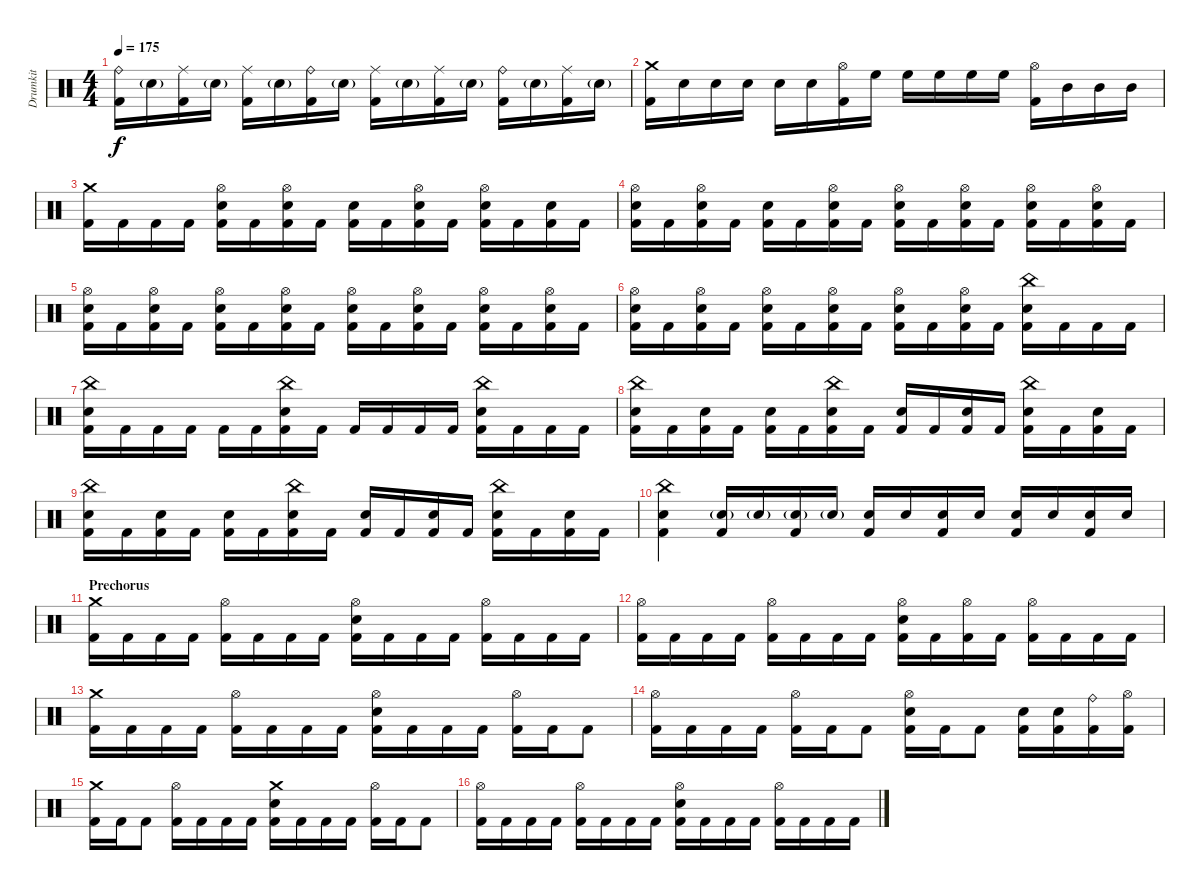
\track ("Drumkit" "Drumkit") {instrument percussion}
\staff {score}
\articulation defaults
\ts (4 4)
\tempo 175
\clef neutral
\ks c
("Ride (bell)" "Kick (hit) 2").16{dy f} "Snare (hit) 2"{g}.16 ("Ride (middle)" "Kick (hit) 2").16 "Snare (hit) 2"{g}.16 ("Ride (middle)" "Kick (hit) 2").16 "Snare (hit) 2"{g}.16 ("Ride (bell)" "Kick (hit) 2").16 "Snare (hit) 2"{g}.16 ("Ride (middle)" "Kick (hit) 2").16 "Snare (hit) 2"{g}.16 ("Ride (middle)" "Kick (hit) 2").16 "Snare (hit) 2"{g}.16 ("Ride (bell)" "Kick (hit) 2").16 "Snare (hit) 2"{g}.16 ("Ride (middle)" "Kick (hit) 2").16 "Snare (hit) 2"{g}.16 |
("Crash medium (hit)" "Kick (hit) 2").16 "Snare (hit) 2".16 "Snare (hit) 2".16 "Snare (hit) 2".16 "Snare (hit) 2".16 "Snare (hit) 2".16 ("Hi-Hat (open)" "Kick (hit) 2").16 "High Floor Tom (hit)".16 "High Floor Tom (hit)".16 "High Floor Tom (hit)".16 "High Floor Tom (hit)".16 "High Floor Tom (hit)".16 ("Hi-Hat (open)" "Kick (hit) 2").16 "Mid Tom (hit)".16 "Mid Tom (hit)".16 "Mid Tom (hit)".16 |
("Crash medium (hit)" "Kick (hit) 2").16 "Kick (hit) 2".16 "Kick (hit) 2".16 "Kick (hit) 2".16 ("Hi-Hat (open)" "Snare (hit) 2" "Kick (hit) 2").16 "Kick (hit) 2".16 ("Hi-Hat (open)" "Snare (hit) 2" "Kick (hit) 2").16 "Kick (hit) 2".16 ("Snare (hit) 2" "Kick (hit) 2").16 "Kick (hit) 2".16 ("Hi-Hat (open)" "Snare (hit) 2" "Kick (hit) 2").16 "Kick (hit) 2".16 ("Hi-Hat (open)" "Snare (hit) 2" "Kick (hit) 2").16 "Kick (hit) 2".16 ("Snare (hit) 2" "Kick (hit) 2").16 "Kick (hit) 2".16 |
("Hi-Hat (open)" "Snare (hit) 2" "Kick (hit) 2").16 "Kick (hit) 2".16 ("Hi-Hat (open)" "Snare (hit) 2" "Kick (hit) 2").16 "Kick (hit) 2".16 ("Snare (hit) 2" "Kick (hit) 2").16 "Kick (hit) 2".16 ("Hi-Hat (open)" "Snare (hit) 2" "Kick (hit) 2").16 "Kick (hit) 2".16 ("Hi-Hat (open)" "Snare (hit) 2" "Kick (hit) 2").16 "Kick (hit) 2".16 ("Hi-Hat (open)" "Snare (hit) 2" "Kick (hit) 2").16 "Kick (hit) 2".16 ("Hi-Hat (open)" "Snare (hit) 2" "Kick (hit) 2").16 "Kick (hit) 2".16 ("Hi-Hat (open)" "Snare (hit) 2" "Kick (hit) 2").16 "Kick (hit) 2".16 |
("Hi-Hat (open)" "Snare (hit) 2" "Kick (hit) 2").16 "Kick (hit) 2".16 ("Hi-Hat (open)" "Snare (hit) 2" "Kick (hit) 2").16 "Kick (hit) 2".16 ("Hi-Hat (open)" "Snare (hit) 2" "Kick (hit) 2").16 "Kick (hit) 2".16 ("Hi-Hat (open)" "Snare (hit) 2" "Kick (hit) 2").16 "Kick (hit) 2".16 ("Hi-Hat (open)" "Snare (hit) 2" "Kick (hit) 2").16 "Kick (hit) 2".16 ("Hi-Hat (open)" "Snare (hit) 2" "Kick (hit) 2").16 "Kick (hit) 2".16 ("Hi-Hat (open)" "Snare (hit) 2" "Kick (hit) 2").16 "Kick (hit) 2".16 ("Hi-Hat (open)" "Snare (hit) 2" "Kick (hit) 2").16 "Kick (hit) 2".16 |
("Hi-Hat (open)" "Snare (hit) 2" "Kick (hit) 2").16 "Kick (hit) 2".16 ("Hi-Hat (open)" "Snare (hit) 2" "Kick (hit) 2").16 "Kick (hit) 2".16 ("Hi-Hat (open)" "Snare (hit) 2" "Kick (hit) 2").16 "Kick (hit) 2".16 ("Hi-Hat (open)" "Snare (hit) 2" "Kick (hit) 2").16 "Kick (hit) 2".16 ("Hi-Hat (open)" "Snare (hit) 2" "Kick (hit) 2").16 "Kick (hit) 2".16 ("Hi-Hat (open)" "Snare (hit) 2" "Kick (hit) 2").16 "Kick (hit) 2".16 ("China (hit)" "Snare (hit) 2" "Kick (hit) 2").16 "Kick (hit) 2".16 "Kick (hit) 2".16 "Kick (hit) 2".16 |
("China (hit)" "Snare (hit) 2" "Kick (hit) 2").16 "Kick (hit) 2".16 "Kick (hit) 2".16 "Kick (hit) 2".16 "Kick (hit) 2".16 "Kick (hit) 2".16 ("China (hit)" "Snare (hit) 2" "Kick (hit) 2").16 "Kick (hit) 2".16 "Kick (hit) 2".16 "Kick (hit) 2".16 "Kick (hit) 2".16 "Kick (hit) 2".16 ("China (hit)" "Snare (hit) 2" "Kick (hit) 2").16 "Kick (hit) 2".16 "Kick (hit) 2".16 "Kick (hit) 2".16 |
("China (hit)" "Snare (hit) 2" "Kick (hit) 2").16 "Kick (hit) 2".16 ("Snare (hit) 2" "Kick (hit) 2").16 "Kick (hit) 2".16 ("Snare (hit) 2" "Kick (hit) 2").16 "Kick (hit) 2".16 ("China (hit)" "Snare (hit) 2" "Kick (hit) 2").16 "Kick (hit) 2".16 ("Snare (hit) 2" "Kick (hit) 2").16 "Kick (hit) 2".16 ("Snare (hit) 2" "Kick (hit) 2").16 "Kick (hit) 2".16 ("China (hit)" "Snare (hit) 2" "Kick (hit) 2").16 "Kick (hit) 2".16 ("Snare (hit) 2" "Kick (hit) 2").16 "Kick (hit) 2".16 |
("China (hit)" "Snare (hit) 2" "Kick (hit) 2").16 "Kick (hit) 2".16 ("Snare (hit) 2" "Kick (hit) 2").16 "Kick (hit) 2".16 ("Snare (hit) 2" "Kick (hit) 2").16 "Kick (hit) 2".16 ("China (hit)" "Snare (hit) 2" "Kick (hit) 2").16 "Kick (hit) 2".16 ("Snare (hit) 2" "Kick (hit) 2").16 "Kick (hit) 2".16 ("Snare (hit) 2" "Kick (hit) 2").16 "Kick (hit) 2".16 ("China (hit)" "Snare (hit) 2" "Kick (hit) 2").16 "Kick (hit) 2".16 ("Snare (hit) 2" "Kick (hit) 2").16 "Kick (hit) 2".16 |
("China (hit)" "Snare (hit) 2" "Kick (hit) 2").4 ("Snare (hit) 2"{g} "Kick (hit) 2").16 "Snare (hit) 2"{g}.16 ("Snare (hit) 2"{g} "Kick (hit) 2").16 "Snare (hit) 2"{g}.16 ("Snare (hit) 2" "Kick (hit) 2").16 "Snare (hit) 2".16 ("Snare (hit) 2" "Kick (hit) 2").16 "Snare (hit) 2".16 ("Snare (hit) 2" "Kick (hit) 2").16 "Snare (hit) 2".16 ("Snare (hit) 2" "Kick (hit) 2").16 "Snare (hit) 2".16 |
\section ("" "Prechorus")
("Crash medium (hit)" "Kick (hit) 2").16 "Kick (hit) 2".16 "Kick (hit) 2".16 "Kick (hit) 2".16 ("Hi-Hat (open)" "Kick (hit) 2").16 "Kick (hit) 2".16 "Kick (hit) 2".16 "Kick (hit) 2".16 ("Hi-Hat (open)" "Snare (hit) 2" "Kick (hit) 2").16 "Kick (hit) 2".16 "Kick (hit) 2".16 "Kick (hit) 2".16 ("Hi-Hat (open)" "Kick (hit) 2").16 "Kick (hit) 2".16 "Kick (hit) 2".16 "Kick (hit) 2".16 |
("Hi-Hat (open)" "Kick (hit) 2").16 "Kick (hit) 2".16 "Kick (hit) 2".16 "Kick (hit) 2".16 ("Hi-Hat (open)" "Kick (hit) 2").16 "Kick (hit) 2".16 "Kick (hit) 2".16 "Kick (hit) 2".16 ("Hi-Hat (open)" "Snare (hit) 2" "Kick (hit) 2").16 "Kick (hit) 2".16 ("Hi-Hat (open)" "Kick (hit) 2").16 "Kick (hit) 2".16 ("Hi-Hat (open)" "Kick (hit) 2").16 "Kick (hit) 2".16 "Kick (hit) 2".16 "Kick (hit) 2".16 |
("Crash medium (hit)" "Kick (hit) 2").16 "Kick (hit) 2".16 "Kick (hit) 2".16 "Kick (hit) 2".16 ("Hi-Hat (open)" "Kick (hit) 2").16 "Kick (hit) 2".16 "Kick (hit) 2".16 "Kick (hit) 2".16 ("Hi-Hat (open)" "Snare (hit) 2" "Kick (hit) 2").16 "Kick (hit) 2".16 "Kick (hit) 2".16 "Kick (hit) 2".16 ("Hi-Hat (open)" "Kick (hit) 2").16 "Kick (hit) 2".16 "Kick (hit) 2".8 |
("Hi-Hat (open)" "Kick (hit) 2").16 "Kick (hit) 2".16 "Kick (hit) 2".16 "Kick (hit) 2".16 ("Hi-Hat (open)" "Kick (hit) 2").16 "Kick (hit) 2".16 "Kick (hit) 2".8 ("Hi-Hat (open)" "Snare (hit) 2" "Kick (hit) 2").16 "Kick (hit) 2".16 "Kick (hit) 2".8 ("Snare (hit) 2" "Kick (hit) 2").16 ("Snare (hit) 2" "Kick (hit) 2").16 ("Ride (bell)" "Kick (hit) 2").16 ("Hi-Hat (open)" "Kick (hit) 2").16 |
("Crash medium (hit)" "Kick (hit) 2").16 "Kick (hit) 2".16 "Kick (hit) 2".8 ("Hi-Hat (open)" "Kick (hit) 2").16 "Kick (hit) 2".16 "Kick (hit) 2".16 "Kick (hit) 2".16 ("Crash medium (hit)" "Snare (hit) 2" "Kick (hit) 2").16 "Kick (hit) 2".16 "Kick (hit) 2".16 "Kick (hit) 2".16 ("Hi-Hat (open)" "Kick (hit) 2").16 "Kick (hit) 2".16 "Kick (hit) 2".8 |
("Hi-Hat (open)" "Kick (hit) 2").16 "Kick (hit) 2".16 "Kick (hit) 2".16 "Kick (hit) 2".16 ("Hi-Hat (open)" "Kick (hit) 2").16 "Kick (hit) 2".16 "Kick (hit) 2".16 "Kick (hit) 2".16 ("Hi-Hat (open)" "Snare (hit) 2" "Kick (hit) 2").16 "Kick (hit) 2".16 "Kick (hit) 2".16 "Kick (hit) 2".16 ("Hi-Hat (open)" "Kick (hit) 2").16 "Kick (hit) 2".16 "Kick (hit) 2".16 "Kick (hit) 2".16
